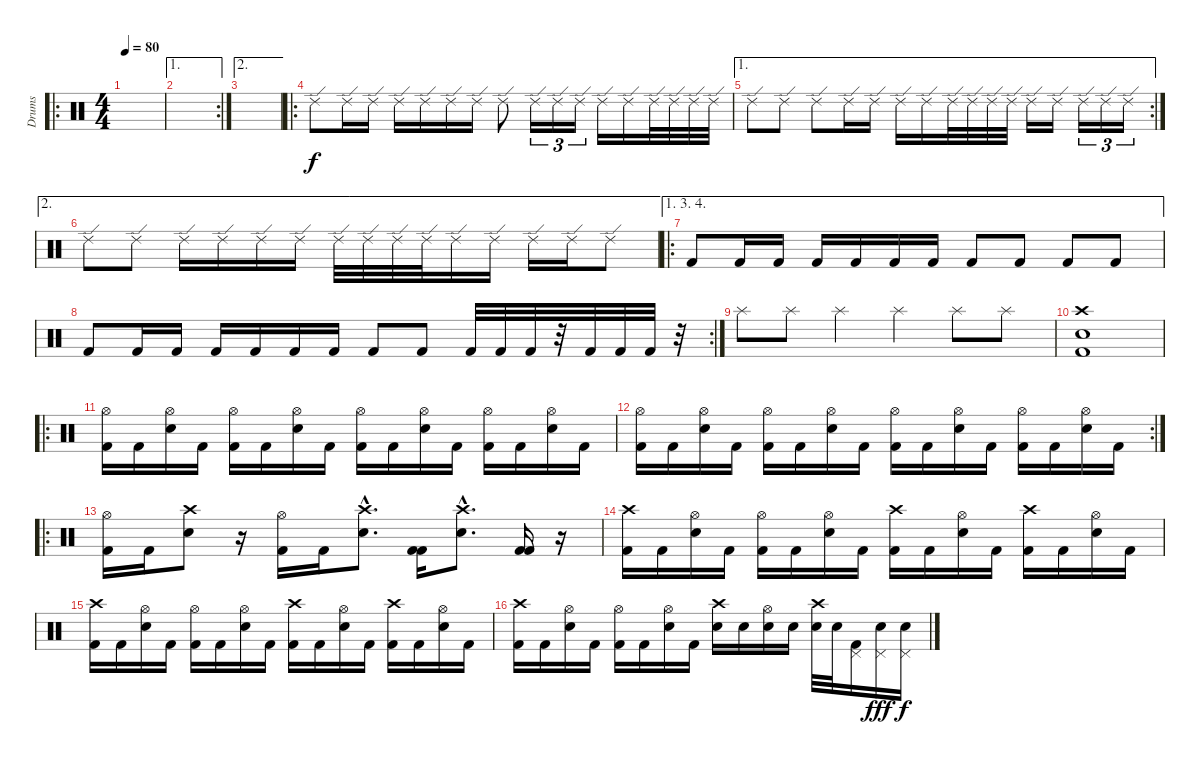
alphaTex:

\track ("Drums" "Drums") {instrument percussion}
\staff {score}
\articulation defaults
\ro
\ts (4 4)
\tempo 80
\clef neutral
\ks c
|
\ae 1
\rc 2
|
\ae 2
|
\ro "Ride (edge) 2".8 "Ride (edge) 2".16 "Ride (edge) 2".16 "Ride (edge) 2".16 "Ride (edge) 2".16 "Ride (edge) 2".16 "Ride (edge) 2".16 "Ride (edge) 2".8 "Ride (edge) 2".16{tu (3 2)} "Ride (edge) 2".16{tu (3 2)} "Ride (edge) 2".16{tu (3 2)} "Ride (edge) 2".16 "Ride (edge) 2".16 "Ride (edge) 2".32 "Ride (edge) 2".32 "Ride (edge) 2".32 "Ride (edge) 2".32
|
\ae 1
\rc 2 "Ride (edge) 2".8 "Ride (edge) 2".8 "Ride (edge) 2".8 "Ride (edge) 2".16 "Ride (edge) 2".16 "Ride (edge) 2".16 "Ride (edge) 2".16 "Ride (edge) 2".32 "Ride (edge) 2".32 "Ride (edge) 2".32 "Ride (edge) 2".32 "Ride (edge) 2".16 "Ride (edge) 2".16 "Ride (edge) 2".16{tu (3 2)} "Ride (edge) 2".16{tu (3 2)} "Ride (edge) 2".16{tu (3 2)}
|
\ae 2 "Ride (edge) 2".8 "Ride (edge) 2".8 "Ride (edge) 2".16 "Ride (edge) 2".16 "Ride (edge) 2".16 "Ride (edge) 2".16 "Ride (edge) 2".32 "Ride (edge) 2".32 "Ride (edge) 2".32 "Ride (edge) 2".32 "Ride (edge) 2".16 "Ride (edge) 2".16 "Ride (edge) 2".16 "Ride (edge) 2".16 "Ride (edge) 2".8
|
\ae (1 3 4)
\ro "Kick (hit) 2".8 "Kick (hit) 2".16 "Kick (hit) 2".16 "Kick (hit) 2".16 "Kick (hit) 2".16 "Kick (hit) 2".16 "Kick (hit) 2".16 "Kick (hit) 2".8 "Kick (hit) 2".8 "Kick (hit) 2".8 "Kick (hit) 2".8
|
\rc 2 "Kick (hit) 2".8 "Kick (hit) 2".16 "Kick (hit) 2".16 "Kick (hit) 2".16 "Kick (hit) 2".16 "Kick (hit) 2".16 "Kick (hit) 2".16 "Kick (hit) 2".8 "Kick (hit) 2".8 "Kick (hit) 2".32 "Kick (hit) 2".32 "Kick (hit) 2".32
r.32 "Kick (hit) 2".32 "Kick (hit) 2".32 "Kick (hit) 2".32 r.32 |
"Splash (hit)".8 "Splash (hit)".8 "Splash (hit)".4 "Splash (hit)".4 "Splash (hit)".8 "Splash (hit)".8 |
("Electric Snare (hit)" "Kick (hit) 2" "Crash high (hit)").1 |
\ro
("Hi-Hat (open)" "Kick (hit) 2").16 "Kick (hit) 2".16 ("Hi-Hat (open)" "Electric Snare (hit)").16 "Kick (hit) 2".16 ("Hi-Hat (open)" "Kick (hit) 2").16 "Kick (hit) 2".16 ("Hi-Hat (open)" "Electric Snare (hit)").16 "Kick (hit) 2".16 ("Hi-Hat (open)" "Kick (hit) 2").16 "Kick (hit) 2".16 ("Hi-Hat (open)" "Electric Snare (hit)").16 "Kick (hit) 2".16 ("Hi-Hat (open)" "Kick (hit) 2").16 "Kick (hit) 2".16 ("Hi-Hat (open)" "Electric Snare (hit)").16 "Kick (hit) 2".16 |
\rc 2
("Hi-Hat (open)" "Kick (hit) 2").16 "Kick (hit) 2".16 ("Hi-Hat (open)" "Electric Snare (hit)").16 "Kick (hit) 2".16 ("Hi-Hat (open)" "Kick (hit) 2").16 "Kick (hit) 2".16 ("Hi-Hat (open)" "Electric Snare (hit)").16 "Kick (hit) 2".16 ("Hi-Hat (open)" "Kick (hit) 2").16 "Kick (hit) 2".16 ("Hi-Hat (open)" "Electric Snare (hit)").16 "Kick (hit) 2".16 ("Hi-Hat (open)" "Kick (hit) 2").16 "Kick (hit) 2".16 ("Hi-Hat (open)" "Electric Snare (hit)").16 "Kick (hit) 2".16 |
\ro
("Hi-Hat (open)" "Kick (hit) 2").16 "Kick (hit) 2".16 ("Crash high (hit)" "Electric Snare (hit)").8 r.16 ("Hi-Hat (open)" "Kick (hit) 2").16 "Kick (hit) 2".16 ("Crash high (hit)"{hac} "Electric Snare (hit)"{hac}).8{d} ("Kick (hit) 2" "Kick (hit) 2").16 ("Crash high (hit)"{hac} "Electric Snare (hit)"{hac}).8{d} ("Kick (hit) 2" "Kick (hit) 2").16 r.16 |
("Crash high (hit)" "Kick (hit) 2").16 "Kick (hit) 2".16 ("Hi-Hat (open)" "Electric Snare (hit)").16 "Kick (hit) 2".16 ("Hi-Hat (open)" "Kick (hit) 2").16 "Kick (hit) 2".16 ("Hi-Hat (open)" "Electric Snare (hit)").16 "Kick (hit) 2".16 ("Crash high (hit)" "Kick (hit) 2").16 "Kick (hit) 2".16 ("Hi-Hat (open)" "Electric Snare (hit)").16 "Kick (hit) 2".16 ("Crash high (hit)" "Kick (hit) 2").16 "Kick (hit) 2".16 ("Hi-Hat (open)" "Electric Snare (hit)").16 "Kick (hit) 2".16 |
("Crash high (hit)" "Kick (hit) 2").16 "Kick (hit) 2".16 ("Hi-Hat (open)" "Electric Snare (hit)").16 "Kick (hit) 2".16 ("Hi-Hat (open)" "Kick (hit) 2").16 "Kick (hit) 2".16 ("Hi-Hat (open)" "Electric Snare (hit)").16 "Kick (hit) 2".16 ("Crash high (hit)" "Kick (hit) 2").16 "Kick (hit) 2".16 ("Hi-Hat (open)" "Electric Snare (hit)").16 "Kick (hit) 2".16 ("Crash high (hit)" "Kick (hit) 2").16 "Kick (hit) 2".16 ("Hi-Hat (open)" "Electric Snare (hit)").16 "Kick (hit) 2".16 |
("Crash high (hit)" "Kick (hit) 2").16 "Kick (hit) 2".16 ("Hi-Hat (open)" "Electric Snare (hit)").16 "Kick (hit) 2".16 ("Hi-Hat (open)" "Kick (hit) 2").16 "Kick (hit) 2".16 ("Hi-Hat (open)" "Electric Snare (hit)").16 "Kick (hit) 2".16 ("Crash high (hit)" "Electric Snare (hit)").16 "Electric Snare (hit)".16 ("Hi-Hat (open)" "Electric Snare (hit)").16 "Electric Snare (hit)".16 ("Crash high (hit)" "Electric Snare (hit)").32 "Electric Snare (hit)".32 ("Pedal Hi-Hat (hit)" "Kick (hit) 2").16 ("Pedal Hi-Hat (hit)" "Electric Snare (hit)").16{dy fff} ("Pedal Hi-Hat (hit)" "Electric Snare (hit)").16{dy f}
